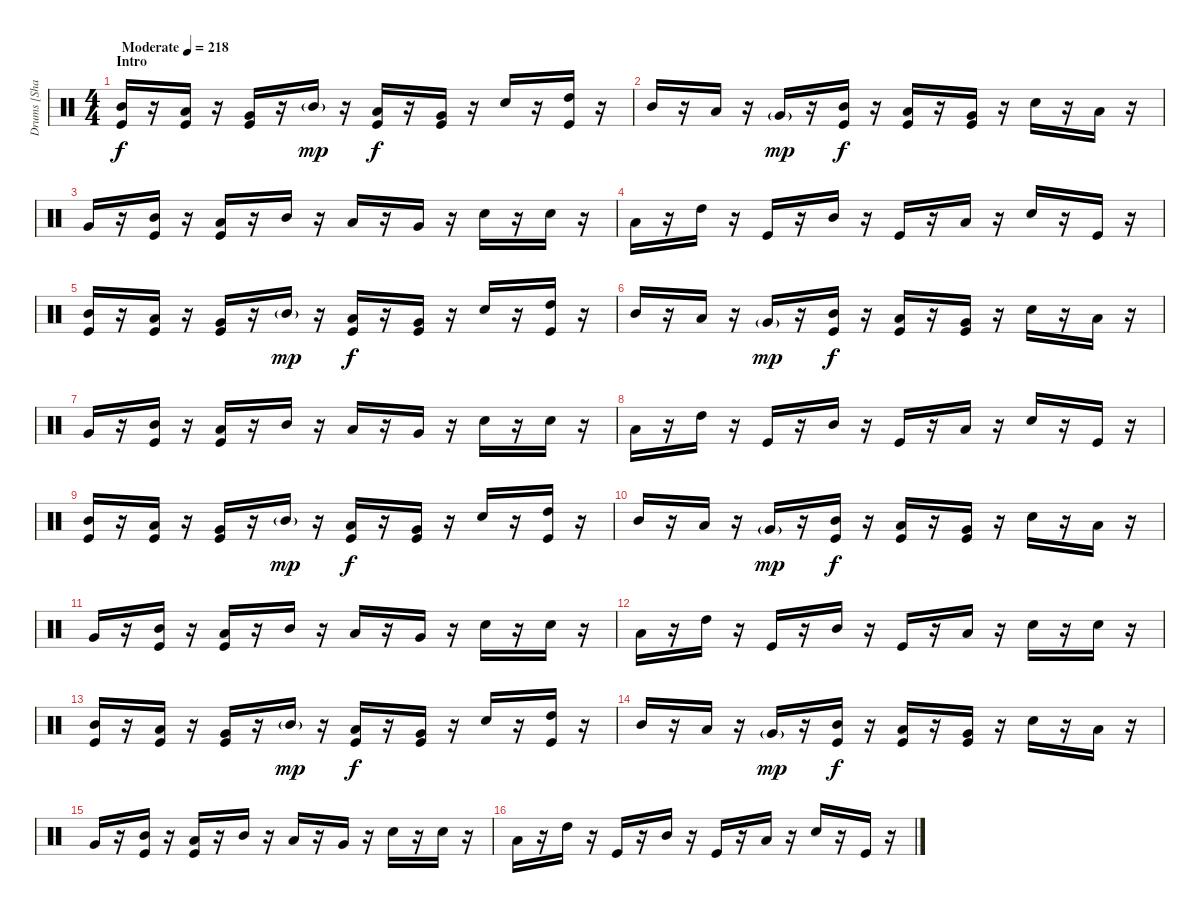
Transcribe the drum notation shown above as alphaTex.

\track ("Drums [Shannon Larkin]" "Drums [Sha") {instrument percussion}
\staff {score}
\articulation defaults
\ts (4 4)
\section ("" "Intro")
\tempo (218 "Moderate")
\clef neutral
\ks c
("Mid Tom (hit)" "Kick (hit)").16{dy f} r.16 ("Low Tom (hit)" "Kick (hit)").16 r.16 ("Very Low Tom (hit)" "Kick (hit)").16 r.16 "Mid Tom (hit)"{g}.16{dy mp} r.16 ("Low Tom (hit)" "Kick (hit)").16{dy f} r.16 ("Very Low Tom (hit)" "Kick (hit)").16 r.16 "Electric Snare (hit)".16 r.16 ("High Tom (hit)" "Kick (hit)").16 r.16 |
"Mid Tom (hit)".16 r.16 "Low Tom (hit)".16 r.16 "Very Low Tom (hit)"{g}.16{dy mp} r.16 ("Mid Tom (hit)" "Kick (hit)").16{dy f} r.16 ("Low Tom (hit)" "Kick (hit)").16 r.16 ("Very Low Tom (hit)" "Kick (hit)").16 r.16 "Electric Snare (hit)".16 r.16 "Low Tom (hit)".16 r.16 |
"Very Low Tom (hit)".16 r.16 ("Mid Tom (hit)" "Kick (hit)").16 r.16 ("Low Tom (hit)" "Kick (hit)").16 r.16 "Mid Tom (hit)".16 r.16 "Low Tom (hit)".16 r.16 "Very Low Tom (hit)".16 r.16 "Electric Snare (hit)".16 r.16 "Electric Snare (hit)".16 r.16 |
"Low Tom (hit)".16 r.16 "High Tom (hit)".16 r.16 "Kick (hit)".16 r.16 "Mid Tom (hit)".16 r.16 "Kick (hit)".16 r.16 "Low Tom (hit)".16 r.16 "Electric Snare (hit)".16 r.16 "Kick (hit)".16 r.16 |
("Mid Tom (hit)" "Kick (hit)").16 r.16 ("Low Tom (hit)" "Kick (hit)").16 r.16 ("Very Low Tom (hit)" "Kick (hit)").16 r.16 "Mid Tom (hit)"{g}.16{dy mp} r.16 ("Low Tom (hit)" "Kick (hit)").16{dy f} r.16 ("Very Low Tom (hit)" "Kick (hit)").16 r.16 "Electric Snare (hit)".16 r.16 ("High Tom (hit)" "Kick (hit)").16 r.16 |
"Mid Tom (hit)".16 r.16 "Low Tom (hit)".16 r.16 "Very Low Tom (hit)"{g}.16{dy mp} r.16 ("Mid Tom (hit)" "Kick (hit)").16{dy f} r.16 ("Low Tom (hit)" "Kick (hit)").16 r.16 ("Very Low Tom (hit)" "Kick (hit)").16 r.16 "Electric Snare (hit)".16 r.16 "Low Tom (hit)".16 r.16 |
"Very Low Tom (hit)".16 r.16 ("Mid Tom (hit)" "Kick (hit)").16 r.16 ("Low Tom (hit)" "Kick (hit)").16 r.16 "Mid Tom (hit)".16 r.16 "Low Tom (hit)".16 r.16 "Very Low Tom (hit)".16 r.16 "Electric Snare (hit)".16 r.16 "Electric Snare (hit)".16 r.16 |
"Low Tom (hit)".16 r.16 "High Tom (hit)".16 r.16 "Kick (hit)".16 r.16 "Mid Tom (hit)".16 r.16 "Kick (hit)".16 r.16 "Low Tom (hit)".16 r.16 "Electric Snare (hit)".16 r.16 "Kick (hit)".16 r.16 |
("Mid Tom (hit)" "Kick (hit)").16 r.16 ("Low Tom (hit)" "Kick (hit)").16 r.16 ("Very Low Tom (hit)" "Kick (hit)").16 r.16 "Mid Tom (hit)"{g}.16{dy mp} r.16 ("Low Tom (hit)" "Kick (hit)").16{dy f} r.16 ("Very Low Tom (hit)" "Kick (hit)").16 r.16 "Electric Snare (hit)".16 r.16 ("High Tom (hit)" "Kick (hit)").16 r.16 |
"Mid Tom (hit)".16 r.16 "Low Tom (hit)".16 r.16 "Very Low Tom (hit)"{g}.16{dy mp} r.16 ("Mid Tom (hit)" "Kick (hit)").16{dy f} r.16 ("Low Tom (hit)" "Kick (hit)").16 r.16 ("Very Low Tom (hit)" "Kick (hit)").16 r.16 "Electric Snare (hit)".16 r.16 "Low Tom (hit)".16 r.16 |
"Very Low Tom (hit)".16 r.16 ("Mid Tom (hit)" "Kick (hit)").16 r.16 ("Low Tom (hit)" "Kick (hit)").16 r.16 "Mid Tom (hit)".16 r.16 "Low Tom (hit)".16 r.16 "Very Low Tom (hit)".16 r.16 "Electric Snare (hit)".16 r.16 "Electric Snare (hit)".16 r.16 |
"Low Tom (hit)".16 r.16 "High Tom (hit)".16 r.16 "Kick (hit)".16 r.16 "Mid Tom (hit)".16 r.16 "Kick (hit)".16 r.16 "Low Tom (hit)".16 r.16 "Electric Snare (hit)".16 r.16 "Electric Snare (hit)".16 r.16 |
("Mid Tom (hit)" "Kick (hit)").16 r.16 ("Low Tom (hit)" "Kick (hit)").16 r.16 ("Very Low Tom (hit)" "Kick (hit)").16 r.16 "Mid Tom (hit)"{g}.16{dy mp} r.16 ("Low Tom (hit)" "Kick (hit)").16{dy f} r.16 ("Very Low Tom (hit)" "Kick (hit)").16 r.16 "Electric Snare (hit)".16 r.16 ("High Tom (hit)" "Kick (hit)").16 r.16 |
"Mid Tom (hit)".16 r.16 "Low Tom (hit)".16 r.16 "Very Low Tom (hit)"{g}.16{dy mp} r.16 ("Mid Tom (hit)" "Kick (hit)").16{dy f} r.16 ("Low Tom (hit)" "Kick (hit)").16 r.16 ("Very Low Tom (hit)" "Kick (hit)").16 r.16 "Electric Snare (hit)".16 r.16 "Low Tom (hit)".16 r.16 |
"Very Low Tom (hit)".16 r.16 ("Mid Tom (hit)" "Kick (hit)").16 r.16 ("Low Tom (hit)" "Kick (hit)").16 r.16 "Mid Tom (hit)".16 r.16 "Low Tom (hit)".16 r.16 "Very Low Tom (hit)".16 r.16 "Electric Snare (hit)".16 r.16 "Electric Snare (hit)".16 r.16 |
"Low Tom (hit)".16 r.16 "High Tom (hit)".16 r.16 "Kick (hit)".16 r.16 "Mid Tom (hit)".16 r.16 "Kick (hit)".16 r.16 "Low Tom (hit)".16 r.16 "Electric Snare (hit)".16 r.16 "Kick (hit)".16 r.16
